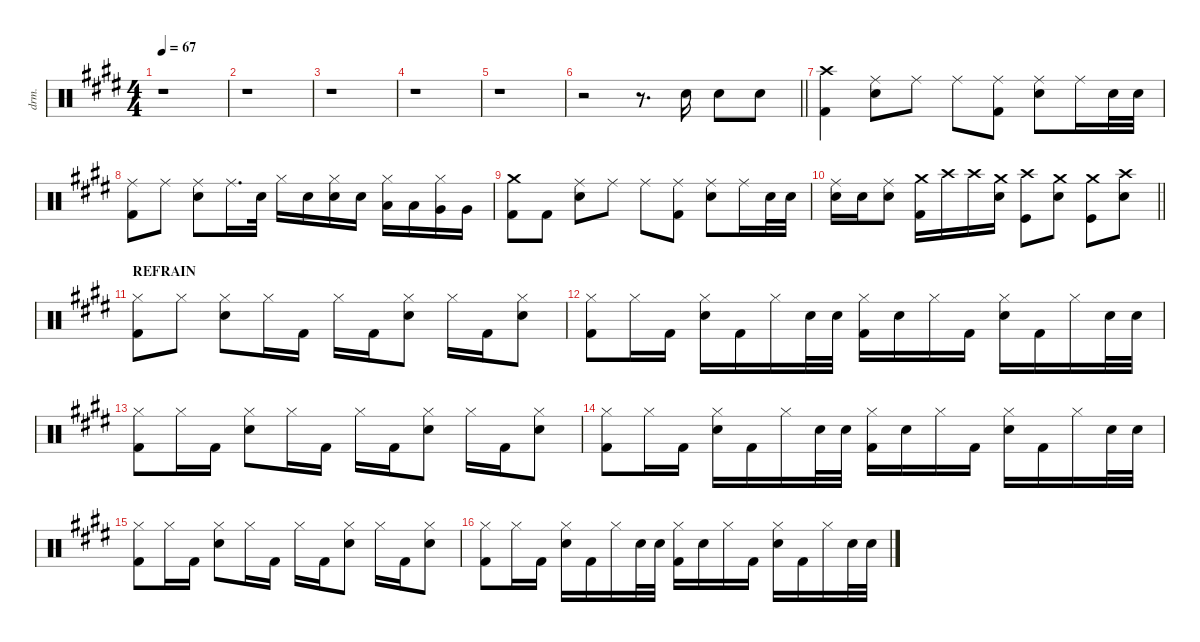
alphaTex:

\defaultSystemsLayout 4
\hideDynamics
\bracketExtendMode groupsimilarinstruments
\otherSystemsTrackNameOrientation horizontal
\track ("Drums" "drm.") {defaultSystemsLayout 4 instrument percussion}
\staff {score}
\articulation defaults
\ts (4 4)
\tempo 67
\clef neutral
\ks c#minor
r.1{dy mf beam Down} |
r.1{beam Down} |
r.1{beam Down} |
r.1{beam Down} |
r.1{beam Down} |
\barLineRight lightlight
r.2{beam Down} r.8{d beam Down} "Snare (hit) 2"{acc forcenatural}.16{dy f beam Down} "Snare (hit) 2"{acc forcenatural}.8{beam Down} "Snare (hit) 2"{acc forcenatural}.8{beam Down} |
("Kick (hit) 2"{acc forcenatural} "Crash high (hit)"{acc forcenatural}).4{beam Down} ("Snare (hit) 2"{acc forcenatural} "Ride (middle)"{acc forcenatural}).8{beam Down} "Ride (middle)"{acc forcenatural}.8{beam Down} "Ride (middle)"{acc forcenatural}.8{beam Down} ("Kick (hit) 2"{acc forcenatural} "Ride (middle)"{acc forcenatural}).8{beam Down} ("Snare (hit) 2"{acc forcenatural} "Ride (middle)"{acc forcenatural}).8{beam Down} "Ride (middle)"{acc forcenatural}.16{beam Down} "Snare (hit) 2"{acc forcenatural}.32{beam Down} "Snare (hit) 2"{acc forcenatural}.32{beam Down} |
("Kick (hit) 2"{acc forcenatural} "Ride (middle)"{acc forcenatural}).8{beam Down} "Ride (middle)"{acc forcenatural}.8{beam Down} ("Snare (hit) 2"{acc forcenatural} "Ride (middle)"{acc forcenatural}).8{beam Down} "Ride (middle)"{acc forcenatural}.16{d beam Down} "Snare (hit) 2"{acc forcenatural}.32{dy fff beam Down} "Hi-Hat (closed)"{acc forcenatural}.16{dy f beam Down} "Snare (hit) 2"{acc forcenatural}.16{beam Down} ("Snare (hit) 2"{acc forcenatural} "Hi-Hat (closed)"{acc forcenatural}).16{beam Down} "Snare (hit) 2"{acc forcenatural}.16{beam Down} ("Low Tom (hit)"{acc forcenatural} "Hi-Hat (closed)"{acc forcenatural}).16{beam Down} "Low Tom (hit)"{acc forcenatural}.16{beam Down} ("Very Low Tom (hit)"{acc forcenatural} "Hi-Hat (closed)"{acc forcenatural}).16{beam Down} "Very Low Tom (hit)"{acc forcenatural}.16{beam Down} |
("Crash medium (hit)"{acc forcenatural} "Kick (hit) 2"{acc forcenatural}).8{beam Down} "Kick (hit) 2"{acc forcenatural}.8{beam Down} ("Ride (middle)"{acc forcenatural} "Snare (hit) 2"{acc forcenatural}).8{beam Down} "Ride (middle)"{acc forcenatural}.8{beam Down} "Ride (middle)"{acc forcenatural}.8{beam Down} ("Ride (middle)"{acc forcenatural} "Kick (hit) 2"{acc forcenatural}).8{beam Down} ("Snare (hit) 2"{acc forcenatural} "Ride (middle)"{acc forcenatural}).8{beam Down} "Ride (middle)"{acc forcenatural}.16{beam Down} "Snare (hit) 2"{acc forcenatural}.32{beam Down} "Snare (hit) 2"{acc forcenatural}.32{beam Down} |
\barLineRight lightlight
("Snare (hit) 2"{acc forcenatural} "Ride (middle)"{acc forcenatural}).16{beam Down} "Snare (hit) 2"{acc forcenatural}.16{beam Down} ("Snare (hit) 2"{acc forcenatural} "Ride (middle)"{acc forcenatural}).8{beam Down} ("Crash medium (hit)"{acc forcenatural} "Kick (hit) 2"{acc forcenatural}).16{beam Down} "Crash high (hit)"{acc forcenatural}.16{beam Down} "Crash high (hit)"{acc forcenatural}.16{beam Down} ("Snare (hit) 2"{acc forcenatural} "Crash medium (hit)"{acc forcenatural}).16{beam Down} ("Crash high (hit)"{acc forcenatural} "Kick (hit)"{acc forcenatural}).8{beam Down} ("Crash medium (hit)"{acc forcenatural} "Snare (hit) 2"{acc forcenatural}).8{beam Down} ("Crash medium (hit)"{acc forcenatural} "Kick (hit)"{acc forcenatural}).8{beam Down} ("Crash high (hit)"{acc forcenatural} "Snare (hit) 2"{acc forcenatural}).8{beam Down} |
\section ("" "REFRAIN")
("Kick (hit) 2"{acc forcenatural} "Hi-Hat (closed)"{acc forcenatural}).8{beam Down} "Hi-Hat (closed)"{acc forcenatural}.8{beam Down} ("Snare (hit) 2"{acc forcenatural} "Hi-Hat (closed)"{acc forcenatural}).8{beam Down} "Hi-Hat (closed)"{acc forcenatural}.16{beam Down} "Kick (hit) 2"{acc forcenatural}.16{beam Down} "Hi-Hat (closed)"{acc forcenatural}.16{beam Down} "Kick (hit) 2"{acc forcenatural}.16{beam Down} ("Snare (hit) 2"{acc forcenatural} "Hi-Hat (closed)"{acc forcenatural}).8{beam Down} "Hi-Hat (closed)"{acc forcenatural}.16{beam Down} "Kick (hit) 2"{acc forcenatural}.16{beam Down} ("Snare (hit) 2"{acc forcenatural} "Hi-Hat (closed)"{acc forcenatural}).8{beam Down} |
("Kick (hit) 2"{acc forcenatural} "Hi-Hat (closed)"{acc forcenatural}).8{beam Down} "Hi-Hat (closed)"{acc forcenatural}.16{beam Down} "Kick (hit) 2"{acc forcenatural}.16{beam Down} ("Snare (hit) 2"{acc forcenatural} "Hi-Hat (closed)"{acc forcenatural}).16{beam Down} "Kick (hit) 2"{acc forcenatural}.16{beam Down} "Hi-Hat (closed)"{acc forcenatural}.16{beam Down} "Snare (hit) 2"{acc forcenatural}.32{beam Down} "Snare (hit) 2"{acc forcenatural}.32{beam Down} ("Kick (hit) 2"{acc forcenatural} "Hi-Hat (closed)"{acc forcenatural}).16{beam Down} "Snare (hit) 2"{acc forcenatural}.16{beam Down} "Hi-Hat (closed)"{acc forcenatural}.16{beam Down} "Kick (hit) 2"{acc forcenatural}.16{beam Down} ("Snare (hit) 2"{acc forcenatural} "Hi-Hat (closed)"{acc forcenatural}).16{beam Down} "Kick (hit) 2"{acc forcenatural}.16{beam Down} "Hi-Hat (closed)"{acc forcenatural}.16{beam Down} "Snare (hit) 2"{acc forcenatural}.32{beam Down} "Snare (hit) 2"{acc forcenatural}.32{beam Down} |
("Kick (hit) 2"{acc forcenatural} "Hi-Hat (closed)"{acc forcenatural}).8{beam Down} "Hi-Hat (closed)"{acc forcenatural}.16{beam Down} "Kick (hit) 2"{acc forcenatural}.16{beam Down} ("Snare (hit) 2"{acc forcenatural} "Hi-Hat (closed)"{acc forcenatural}).8{beam Down} "Hi-Hat (closed)"{acc forcenatural}.16{beam Down} "Kick (hit) 2"{acc forcenatural}.16{beam Down} "Hi-Hat (closed)"{acc forcenatural}.16{beam Down} "Kick (hit) 2"{acc forcenatural}.16{beam Down} ("Snare (hit) 2"{acc forcenatural} "Hi-Hat (closed)"{acc forcenatural}).8{beam Down} "Hi-Hat (closed)"{acc forcenatural}.16{beam Down} "Kick (hit) 2"{acc forcenatural}.16{beam Down} ("Snare (hit) 2"{acc forcenatural} "Hi-Hat (closed)"{acc forcenatural}).8{beam Down} |
("Kick (hit) 2"{acc forcenatural} "Hi-Hat (closed)"{acc forcenatural}).8{beam Down} "Hi-Hat (closed)"{acc forcenatural}.16{beam Down} "Kick (hit) 2"{acc forcenatural}.16{beam Down} ("Snare (hit) 2"{acc forcenatural} "Hi-Hat (closed)"{acc forcenatural}).16{beam Down} "Kick (hit) 2"{acc forcenatural}.16{beam Down} "Hi-Hat (closed)"{acc forcenatural}.16{beam Down} "Snare (hit) 2"{acc forcenatural}.32{beam Down} "Snare (hit) 2"{acc forcenatural}.32{beam Down} ("Kick (hit) 2"{acc forcenatural} "Hi-Hat (closed)"{acc forcenatural}).16{beam Down} "Snare (hit) 2"{acc forcenatural}.16{beam Down} "Hi-Hat (closed)"{acc forcenatural}.16{beam Down} "Kick (hit) 2"{acc forcenatural}.16{beam Down} ("Snare (hit) 2"{acc forcenatural} "Hi-Hat (closed)"{acc forcenatural}).16{beam Down} "Kick (hit) 2"{acc forcenatural}.16{beam Down} "Hi-Hat (closed)"{acc forcenatural}.16{beam Down} "Snare (hit) 2"{acc forcenatural}.32{beam Down} "Snare (hit) 2"{acc forcenatural}.32{beam Down} |
("Kick (hit) 2"{acc forcenatural} "Hi-Hat (closed)"{acc forcenatural}).8{beam Down} "Hi-Hat (closed)"{acc forcenatural}.16{beam Down} "Kick (hit) 2"{acc forcenatural}.16{beam Down} ("Snare (hit) 2"{acc forcenatural} "Hi-Hat (closed)"{acc forcenatural}).8{beam Down} "Hi-Hat (closed)"{acc forcenatural}.16{beam Down} "Kick (hit) 2"{acc forcenatural}.16{beam Down} "Hi-Hat (closed)"{acc forcenatural}.16{beam Down} "Kick (hit) 2"{acc forcenatural}.16{beam Down} ("Snare (hit) 2"{acc forcenatural} "Hi-Hat (closed)"{acc forcenatural}).8{beam Down} "Hi-Hat (closed)"{acc forcenatural}.16{beam Down} "Kick (hit) 2"{acc forcenatural}.16{beam Down} ("Snare (hit) 2"{acc forcenatural} "Hi-Hat (closed)"{acc forcenatural}).8{beam Down} |
("Kick (hit) 2"{acc forcenatural} "Hi-Hat (closed)"{acc forcenatural}).8{beam Down} "Hi-Hat (closed)"{acc forcenatural}.16{beam Down} "Kick (hit) 2"{acc forcenatural}.16{beam Down} ("Snare (hit) 2"{acc forcenatural} "Hi-Hat (closed)"{acc forcenatural}).16{beam Down} "Kick (hit) 2"{acc forcenatural}.16{beam Down} "Hi-Hat (closed)"{acc forcenatural}.16{beam Down} "Snare (hit) 2"{acc forcenatural}.32{beam Down} "Snare (hit) 2"{acc forcenatural}.32{beam Down} ("Kick (hit) 2"{acc forcenatural} "Hi-Hat (closed)"{acc forcenatural}).16{beam Down} "Snare (hit) 2"{acc forcenatural}.16{beam Down} "Hi-Hat (closed)"{acc forcenatural}.16{beam Down} "Kick (hit) 2"{acc forcenatural}.16{beam Down} ("Snare (hit) 2"{acc forcenatural} "Hi-Hat (closed)"{acc forcenatural}).16{beam Down} "Kick (hit) 2"{acc forcenatural}.16{beam Down} "Hi-Hat (closed)"{acc forcenatural}.16{beam Down} "Snare (hit) 2"{acc forcenatural}.32{beam Down} "Snare (hit) 2"{acc forcenatural}.32{beam Down}
